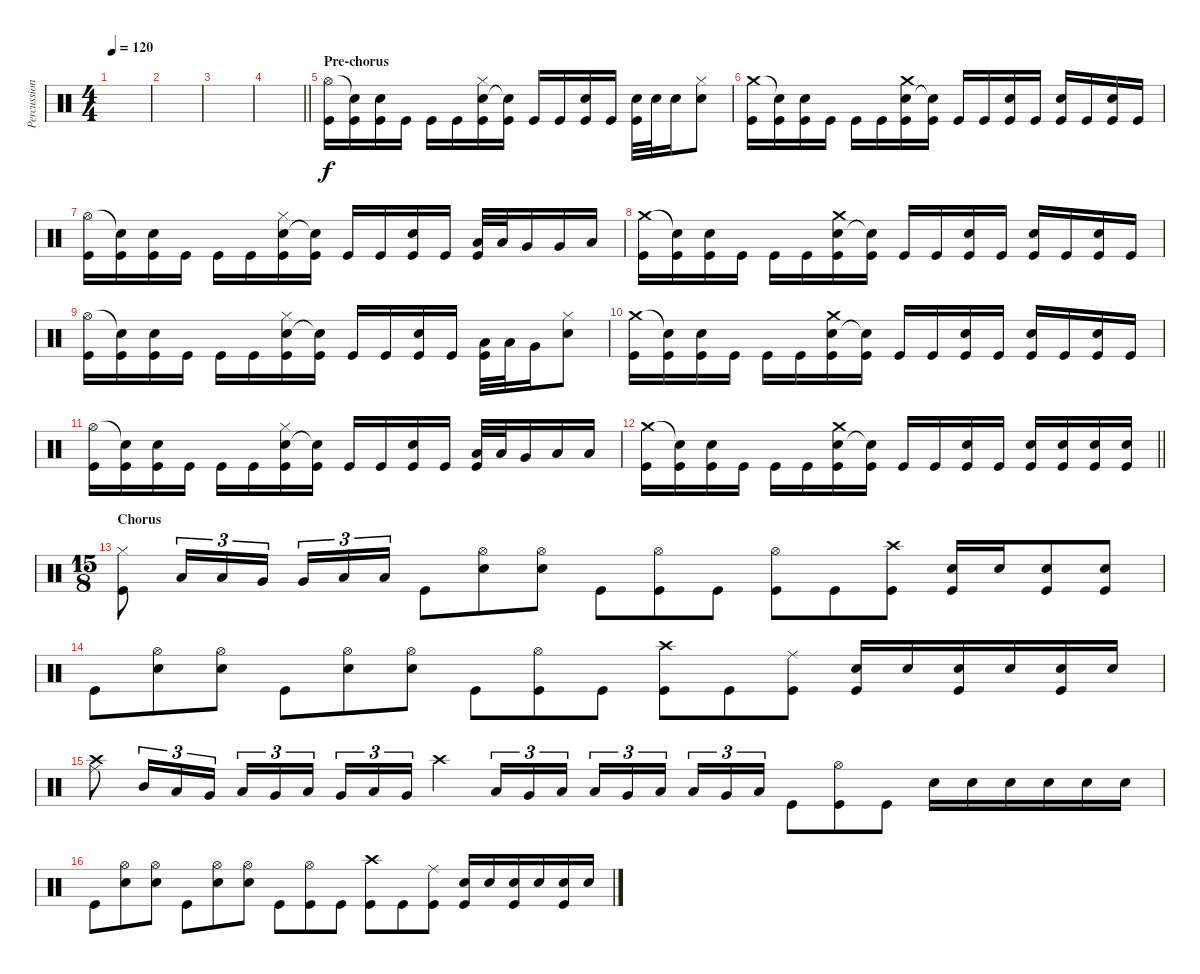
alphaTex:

\track ("Percussion" "Percussion") {instrument percussion}
\staff {score}
\articulation defaults
\ts (4 4)
\tempo 120
\clef neutral
\ks c
|
|
|
\barLineRight lightlight
|
\section ("" "Pre-chorus")
("Hi-Hat (open)" "Kick (hit)").16 ("Snare (hit)"{t} "Kick (hit)").16 ("Snare (hit) 2" "Kick (hit)").16 "Kick (hit)".16 "Kick (hit)".16 "Kick (hit)".16 ("Snare (hit) 2" "Hi-Hat (closed)" "Kick (hit)").16 ("Snare (hit)"{t} "Kick (hit)").16 "Kick (hit)".16 "Kick (hit)".16 ("Snare (hit) 2" "Kick (hit)").16 "Kick (hit)".16 ("Snare (hit) 2" "Kick (hit)").32 "Snare (hit) 2".32 "Snare (hit) 2".16 ("Snare (hit) 2" "Hi-Hat (closed)").8 |
("Crash medium (hit)" "Kick (hit)").16 ("Snare (hit)"{t} "Kick (hit)").16 ("Snare (hit) 2" "Kick (hit)").16 "Kick (hit)".16 "Kick (hit)".16 "Kick (hit)".16 ("Snare (hit) 2" "Crash medium (hit)" "Kick (hit)").16 ("Snare (hit)"{t} "Kick (hit)").16 "Kick (hit)".16 "Kick (hit)".16 ("Snare (hit) 2" "Kick (hit)").16 "Kick (hit)".16 ("Snare (hit) 2" "Kick (hit)").16 "Kick (hit)".16 ("Snare (hit) 2" "Kick (hit)").16 "Kick (hit)".16 |
("Hi-Hat (open)" "Kick (hit)").16 ("Snare (hit)"{t} "Kick (hit)").16 ("Snare (hit) 2" "Kick (hit)").16 "Kick (hit)".16 "Kick (hit)".16 "Kick (hit)".16 ("Snare (hit) 2" "Hi-Hat (closed)" "Kick (hit)").16 ("Snare (hit)"{t} "Kick (hit)").16 "Kick (hit)".16 "Kick (hit)".16 ("Snare (hit) 2" "Kick (hit)").16 "Kick (hit)".16 ("Low Tom (hit)" "Kick (hit)").32 "Low Tom (hit)".32 "Very Low Tom (hit)".16 "Very Low Tom (hit)".16 "Low Floor Tom (hit)".16 |
("Crash medium (hit)" "Kick (hit)").16 ("Snare (hit)"{t} "Kick (hit)").16 ("Snare (hit) 2" "Kick (hit)").16 "Kick (hit)".16 "Kick (hit)".16 "Kick (hit)".16 ("Snare (hit) 2" "Crash medium (hit)" "Kick (hit)").16 ("Snare (hit)"{t} "Kick (hit)").16 "Kick (hit)".16 "Kick (hit)".16 ("Snare (hit) 2" "Kick (hit)").16 "Kick (hit)".16 ("Snare (hit) 2" "Kick (hit)").16 "Kick (hit)".16 ("Snare (hit) 2" "Kick (hit)").16 "Kick (hit)".16 |
("Hi-Hat (open)" "Kick (hit)").16 ("Snare (hit)"{t} "Kick (hit)").16 ("Snare (hit) 2" "Kick (hit)").16 "Kick (hit)".16 "Kick (hit)".16 "Kick (hit)".16 ("Snare (hit) 2" "Hi-Hat (closed)" "Kick (hit)").16 ("Snare (hit)"{t} "Kick (hit)").16 "Kick (hit)".16 "Kick (hit)".16 ("Snare (hit) 2" "Kick (hit)").16 "Kick (hit)".16 ("Low Tom (hit)" "Kick (hit)").32 "Low Tom (hit)".32 "Very Low Tom (hit)".16 ("Snare (hit) 2" "Hi-Hat (closed)").8 |
("Crash medium (hit)" "Kick (hit)").16 ("Snare (hit)"{t} "Kick (hit)").16 ("Snare (hit) 2" "Kick (hit)").16 "Kick (hit)".16 "Kick (hit)".16 "Kick (hit)".16 ("Snare (hit) 2" "Crash medium (hit)" "Kick (hit)").16 ("Snare (hit)"{t} "Kick (hit)").16 "Kick (hit)".16 "Kick (hit)".16 ("Snare (hit) 2" "Kick (hit)").16 "Kick (hit)".16 ("Snare (hit) 2" "Kick (hit)").16 "Kick (hit)".16 ("Snare (hit) 2" "Kick (hit)").16 "Kick (hit)".16 |
("Hi-Hat (open)" "Kick (hit)").16 ("Snare (hit)"{t} "Kick (hit)").16 ("Snare (hit) 2" "Kick (hit)").16 "Kick (hit)".16 "Kick (hit)".16 "Kick (hit)".16 ("Snare (hit) 2" "Hi-Hat (closed)" "Kick (hit)").16 ("Snare (hit)"{t} "Kick (hit)").16 "Kick (hit)".16 "Kick (hit)".16 ("Snare (hit) 2" "Kick (hit)").16 "Kick (hit)".16 ("Low Floor Tom (hit)" "Kick (hit)").32 "Low Floor Tom (hit)".32 "Very Low Tom (hit)".16 "Low Tom (hit)".16 "Low Floor Tom (hit)".16 |
\barLineRight lightlight
("Crash medium (hit)" "Kick (hit)").16 ("Snare (hit)"{t} "Kick (hit)").16 ("Snare (hit) 2" "Kick (hit)").16 "Kick (hit)".16 "Kick (hit)".16 "Kick (hit)".16 ("Snare (hit) 2" "Crash medium (hit)" "Kick (hit)").16 ("Snare (hit)"{t} "Kick (hit)").16 "Kick (hit)".16 "Kick (hit)".16 ("Snare (hit) 2" "Kick (hit)").16 "Kick (hit)".16 ("Snare (hit) 2" "Kick (hit)").16 ("Snare (hit) 2" "Kick (hit)").16 ("Snare (hit) 2" "Kick (hit)").16 ("Snare (hit) 2" "Kick (hit)").16 |
\ts (15 8)
\section ("" "Chorus")
("Hi-Hat (closed)" "Kick (hit)").8 "Low Tom (hit)".16{tu (3 2)} "Low Tom (hit)".16{tu (3 2)} "Very Low Tom (hit)".16{tu (3 2) beam splitsecondary} "Very Low Tom (hit)".16{tu (3 2)} "Low Floor Tom (hit)".16{tu (3 2)} "Low Floor Tom (hit)".16{tu (3 2)} "Kick (hit)".8 ("Hi-Hat (open)" "Snare (hit) 2").8 ("Hi-Hat (open)" "Snare (hit) 2").8 "Kick (hit)".8 ("Hi-Hat (open)" "Kick (hit)").8 "Kick (hit)".8 ("Hi-Hat (open)" "Kick (hit)").8 "Kick (hit)".8 ("Crash high (hit)" "Kick (hit)").8 ("Snare (hit) 2" "Kick (hit)").16 "Snare (hit) 2".16 ("Snare (hit) 2" "Kick (hit)").8 ("Snare (hit) 2" "Kick (hit)").8 |
"Kick (hit)".8 ("Hi-Hat (open)" "Snare (hit) 2").8 ("Hi-Hat (open)" "Snare (hit) 2").8 "Kick (hit)".8 ("Hi-Hat (open)" "Snare (hit) 2").8 ("Hi-Hat (open)" "Snare (hit) 2").8 "Kick (hit)".8 ("Hi-Hat (open)" "Kick (hit)").8 "Kick (hit)".8 ("Crash high (hit)" "Kick (hit)").8 "Kick (hit)".8 ("Ride (middle)" "Kick (hit)").8 ("Snare (hit) 2" "Kick (hit)").16 "Snare (hit) 2".16 ("Snare (hit) 2" "Kick (hit)").16 "Snare (hit) 2".16 ("Snare (hit) 2" "Kick (hit)").16 "Snare (hit) 2".16 |
("Ride (middle)" "Crash high (hit)").8 "Mid Tom (hit)".16{tu (3 2)} "Low Tom (hit)".16{tu (3 2)} "Very Low Tom (hit)".16{tu (3 2) beam splitsecondary} "Low Tom (hit)".16{tu (3 2)} "Very Low Tom (hit)".16{tu (3 2)} "Low Floor Tom (hit)".16{tu (3 2)} "Very Low Tom (hit)".16{tu (3 2)} "Low Floor Tom (hit)".16{tu (3 2)} "Very Low Tom (hit)".16{tu (3 2)} "Crash high (hit)".4 "Low Tom (hit)".16{tu (3 2)} "Very Low Tom (hit)".16{tu (3 2)} "Low Floor Tom (hit)".16{tu (3 2) beam splitsecondary} "Low Tom (hit)".16{tu (3 2)} "Very Low Tom (hit)".16{tu (3 2)} "Low Floor Tom (hit)".16{tu (3 2) beam splitsecondary} "Low Tom (hit)".16{tu (3 2)} "Very Low Tom (hit)".16{tu (3 2)} "Low Floor Tom (hit)".16{tu (3 2)} "Kick (hit)".8 ("Hi-Hat (open)" "Kick (hit)").8 "Kick (hit)".8 "Snare (hit) 2".16 "Snare (hit) 2".16 "Snare (hit) 2".16 "Snare (hit) 2".16 "Snare (hit) 2".16 "Snare (hit) 2".16 |
"Kick (hit)".8 ("Hi-Hat (open)" "Snare (hit) 2").8 ("Hi-Hat (open)" "Snare (hit) 2").8 "Kick (hit)".8 ("Hi-Hat (open)" "Snare (hit) 2").8 ("Hi-Hat (open)" "Snare (hit) 2").8 "Kick (hit)".8 ("Hi-Hat (open)" "Kick (hit)").8 "Kick (hit)".8 ("Crash high (hit)" "Kick (hit)").8 "Kick (hit)".8 ("Ride (middle)" "Kick (hit)").8 ("Snare (hit) 2" "Kick (hit)").16 "Snare (hit) 2".16 ("Snare (hit) 2" "Kick (hit)").16 "Snare (hit) 2".16 ("Snare (hit) 2" "Kick (hit)").16 "Snare (hit) 2".16
